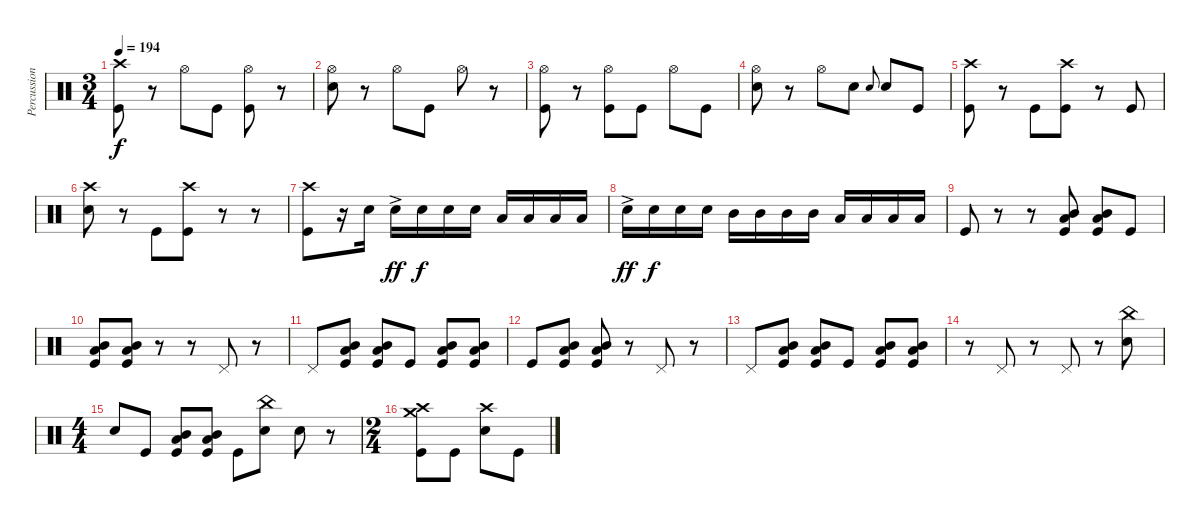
\track ("Percussion" "Percussion") {instrument percussion}
\staff {score}
\articulation defaults
\ts (3 4)
\tempo 194
\clef neutral
\ks c
("Crash high (hit)" "Kick (hit)").8{dy f} r.8 "Hi-Hat (open)".8 "Kick (hit)".8 ("Hi-Hat (open)" "Kick (hit)").8 r.8 |
("Hi-Hat (open)" "Snare (hit) 2").8 r.8 "Hi-Hat (open)".8 "Kick (hit)".8 "Hi-Hat (open)".8 r.8 |
("Hi-Hat (open)" "Kick (hit)").8 r.8 ("Hi-Hat (open)" "Kick (hit)").8 "Kick (hit)".8 "Hi-Hat (open)".8 "Kick (hit)".8 |
("Hi-Hat (open)" "Snare (hit) 2").8 r.8 "Hi-Hat (open)".8 "Snare (hit) 2".8 "Snare (hit) 2".8{gr onbeat} "Snare (hit) 2".8 "Kick (hit)".8 |
("Crash high (hit)" "Kick (hit)").8 r.8 "Kick (hit)".8 ("Crash high (hit)" "Kick (hit)").8 r.8 "Kick (hit)".8 |
("Crash high (hit)" "Snare (hit) 2").8 r.8 "Kick (hit)".8 ("Crash high (hit)" "Kick (hit)").8 r.8 r.8 |
("Kick (hit)" "Crash high (hit)").8 r.16 "Snare (hit) 2".16 "Snare (hit) 2"{ac}.16{dy ff} "Snare (hit) 2".16{dy f} "Snare (hit) 2".16 "Snare (hit) 2".16 "Low Tom (hit)".16 "Low Tom (hit)".16 "Low Tom (hit)".16 "Low Tom (hit)".16 |
"Snare (hit) 2"{ac}.16{dy ff} "Snare (hit) 2".16{dy f} "Snare (hit) 2".16 "Snare (hit) 2".16 "Mid Tom (hit)".16 "Mid Tom (hit)".16 "Mid Tom (hit)".16 "Mid Tom (hit)".16 "Low Tom (hit)".16 "Low Tom (hit)".16 "Low Tom (hit)".16 "Low Tom (hit)".16 |
"Kick (hit)".8 r.8 r.8 ("Mid Tom (hit)" "Low Tom (hit)" "Kick (hit)").8 ("Mid Tom (hit)" "Low Tom (hit)" "Kick (hit)").8 "Kick (hit)".8 |
("Mid Tom (hit)" "Low Tom (hit)" "Kick (hit)").8 ("Mid Tom (hit)" "Low Tom (hit)" "Kick (hit)").8 r.8 r.8 "Pedal Hi-Hat (hit)".8 r.8 |
"Pedal Hi-Hat (hit)".8 ("Mid Tom (hit)" "Low Tom (hit)" "Kick (hit)").8 ("Mid Tom (hit)" "Low Tom (hit)" "Kick (hit)").8 "Kick (hit)".8 ("Mid Tom (hit)" "Low Tom (hit)" "Kick (hit)").8 ("Mid Tom (hit)" "Low Tom (hit)" "Kick (hit)").8 |
"Kick (hit)".8 ("Mid Tom (hit)" "Low Tom (hit)" "Kick (hit)").8 ("Low Tom (hit)" "Mid Tom (hit)" "Kick (hit)").8 r.8 "Pedal Hi-Hat (hit)".8 r.8 |
"Pedal Hi-Hat (hit)".8 ("Mid Tom (hit)" "Low Tom (hit)" "Kick (hit)").8 ("Mid Tom (hit)" "Low Tom (hit)" "Kick (hit)").8 "Kick (hit)".8 ("Mid Tom (hit)" "Low Tom (hit)" "Kick (hit)").8 ("Mid Tom (hit)" "Low Tom (hit)" "Kick (hit)").8 |
r.8 "Pedal Hi-Hat (hit)".8 r.8 "Pedal Hi-Hat (hit)".8 r.8 ("China (hit)" "Snare (hit) 2").8 |
\ts (4 4)
"Snare (hit) 2".8 "Kick (hit)".8 ("Low Tom (hit)" "Mid Tom (hit)" "Kick (hit)").8 ("Low Tom (hit)" "Mid Tom (hit)" "Kick (hit)").8 "Kick (hit)".8 ("China (hit)" "Snare (hit) 2").8 "Snare (hit) 2".8 r.8 |
\ts (2 4)
("Crash high (hit)" "Crash medium (hit)" "Kick (hit)").8 "Kick (hit)".8 ("Crash high (hit)" "Snare (hit) 2").8 "Kick (hit)".8
